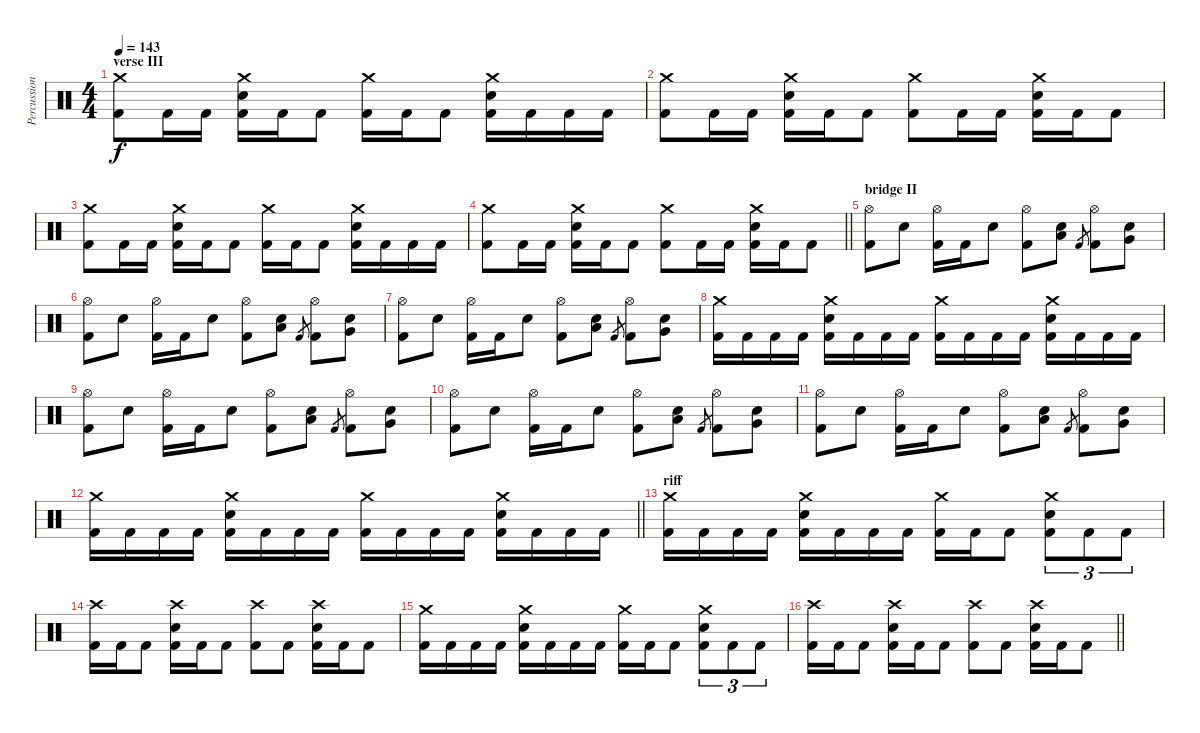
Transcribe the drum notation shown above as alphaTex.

\track ("Percussion" "Percussion") {instrument percussion}
\staff {score}
\articulation defaults
\ts (4 4)
\section ("" "verse III")
\tempo 143
\clef neutral
\ks c
("Crash medium (hit)" "Kick (hit) 2").8{dy f} "Kick (hit) 2".16 "Kick (hit) 2".16 ("Crash medium (hit)" "Snare (hit) 2" "Kick (hit) 2").16 "Kick (hit) 2".16 "Kick (hit) 2".8 ("Crash medium (hit)" "Kick (hit) 2").16 "Kick (hit) 2".16 "Kick (hit) 2".8 ("Crash medium (hit)" "Snare (hit) 2" "Kick (hit) 2").16 "Kick (hit) 2".16 "Kick (hit) 2".16 "Kick (hit) 2".16 |
("Crash medium (hit)" "Kick (hit) 2").8 "Kick (hit) 2".16 "Kick (hit) 2".16 ("Crash medium (hit)" "Snare (hit) 2" "Kick (hit) 2").16 "Kick (hit) 2".16 "Kick (hit) 2".8 ("Crash medium (hit)" "Kick (hit) 2").8 "Kick (hit) 2".16 "Kick (hit) 2".16 ("Crash medium (hit)" "Snare (hit) 2" "Kick (hit) 2").16 "Kick (hit) 2".16 "Kick (hit) 2".8 |
("Crash medium (hit)" "Kick (hit) 2").8 "Kick (hit) 2".16 "Kick (hit) 2".16 ("Crash medium (hit)" "Snare (hit) 2" "Kick (hit) 2").16 "Kick (hit) 2".16 "Kick (hit) 2".8 ("Crash medium (hit)" "Kick (hit) 2").16 "Kick (hit) 2".16 "Kick (hit) 2".8 ("Crash medium (hit)" "Snare (hit) 2" "Kick (hit) 2").16 "Kick (hit) 2".16 "Kick (hit) 2".16 "Kick (hit) 2".16 |
\barLineRight lightlight
("Crash medium (hit)" "Kick (hit) 2").8 "Kick (hit) 2".16 "Kick (hit) 2".16 ("Crash medium (hit)" "Snare (hit) 2" "Kick (hit) 2").16 "Kick (hit) 2".16 "Kick (hit) 2".8 ("Crash medium (hit)" "Kick (hit) 2").8 "Kick (hit) 2".16 "Kick (hit) 2".16 ("Crash medium (hit)" "Snare (hit) 2" "Kick (hit) 2").16 "Kick (hit) 2".16 "Kick (hit) 2".8 |
\section ("" "bridge II")
("Hi-Hat (open)" "Kick (hit) 2").8 "Snare (hit) 2".8 ("Hi-Hat (open)" "Kick (hit) 2").16 "Kick (hit) 2".16 "Snare (hit) 2".8 ("Hi-Hat (open)" "Kick (hit) 2").8 ("Low Floor Tom (hit)" "Snare (hit) 2").8 "Kick (hit) 2".8{gr} ("Hi-Hat (open)" "Kick (hit) 2").8 ("Very Low Tom (hit)" "Snare (hit) 2").8 |
("Hi-Hat (open)" "Kick (hit) 2").8 "Snare (hit) 2".8 ("Hi-Hat (open)" "Kick (hit) 2").16 "Kick (hit) 2".16 "Snare (hit) 2".8 ("Hi-Hat (open)" "Kick (hit) 2").8 ("Low Floor Tom (hit)" "Snare (hit) 2").8 "Kick (hit) 2".8{gr} ("Hi-Hat (open)" "Kick (hit) 2").8 ("Very Low Tom (hit)" "Snare (hit) 2").8 |
("Hi-Hat (open)" "Kick (hit) 2").8 "Snare (hit) 2".8 ("Hi-Hat (open)" "Kick (hit) 2").16 "Kick (hit) 2".16 "Snare (hit) 2".8 ("Hi-Hat (open)" "Kick (hit) 2").8 ("Low Floor Tom (hit)" "Snare (hit) 2").8 "Kick (hit) 2".8{gr} ("Hi-Hat (open)" "Kick (hit) 2").8 ("Very Low Tom (hit)" "Snare (hit) 2").8 |
("Crash medium (hit)" "Kick (hit) 2").16 "Kick (hit) 2".16 "Kick (hit) 2".16 "Kick (hit) 2".16 ("Crash medium (hit)" "Snare (hit) 2" "Kick (hit) 2").16 "Kick (hit) 2".16 "Kick (hit) 2".16 "Kick (hit) 2".16 ("Crash medium (hit)" "Kick (hit) 2").16 "Kick (hit) 2".16 "Kick (hit) 2".16 "Kick (hit) 2".16 ("Crash medium (hit)" "Snare (hit) 2" "Kick (hit) 2").16 "Kick (hit) 2".16 "Kick (hit) 2".16 "Kick (hit) 2".16 |
\ks aminor
("Hi-Hat (open)" "Kick (hit) 2").8 "Snare (hit) 2".8 ("Hi-Hat (open)" "Kick (hit) 2").16 "Kick (hit) 2".16 "Snare (hit) 2".8 ("Hi-Hat (open)" "Kick (hit) 2").8 ("Low Floor Tom (hit)" "Snare (hit) 2").8 "Kick (hit) 2".8{gr} ("Hi-Hat (open)" "Kick (hit) 2").8 ("Very Low Tom (hit)" "Snare (hit) 2").8 |
("Hi-Hat (open)" "Kick (hit) 2").8 "Snare (hit) 2".8 ("Hi-Hat (open)" "Kick (hit) 2").16 "Kick (hit) 2".16 "Snare (hit) 2".8 ("Hi-Hat (open)" "Kick (hit) 2").8 ("Low Floor Tom (hit)" "Snare (hit) 2").8 "Kick (hit) 2".8{gr} ("Hi-Hat (open)" "Kick (hit) 2").8 ("Very Low Tom (hit)" "Snare (hit) 2").8 |
("Hi-Hat (open)" "Kick (hit) 2").8 "Snare (hit) 2".8 ("Hi-Hat (open)" "Kick (hit) 2").16 "Kick (hit) 2".16 "Snare (hit) 2".8 ("Hi-Hat (open)" "Kick (hit) 2").8 ("Low Floor Tom (hit)" "Snare (hit) 2").8 "Kick (hit) 2".8{gr} ("Hi-Hat (open)" "Kick (hit) 2").8 ("Very Low Tom (hit)" "Snare (hit) 2").8 |
\barLineRight lightlight
\ks c
("Crash medium (hit)" "Kick (hit) 2").16 "Kick (hit) 2".16 "Kick (hit) 2".16 "Kick (hit) 2".16 ("Crash medium (hit)" "Snare (hit) 2" "Kick (hit) 2").16 "Kick (hit) 2".16 "Kick (hit) 2".16 "Kick (hit) 2".16 ("Crash medium (hit)" "Kick (hit) 2").16 "Kick (hit) 2".16 "Kick (hit) 2".16 "Kick (hit) 2".16 ("Crash medium (hit)" "Snare (hit) 2" "Kick (hit) 2").16 "Kick (hit) 2".16 "Kick (hit) 2".16 "Kick (hit) 2".16 |
\section ("" "riff")
("Crash medium (hit)" "Kick (hit) 2").16 "Kick (hit) 2".16 "Kick (hit) 2".16 "Kick (hit) 2".16 ("Crash medium (hit)" "Snare (hit) 2" "Kick (hit) 2").16 "Kick (hit) 2".16 "Kick (hit) 2".16 "Kick (hit) 2".16 ("Crash medium (hit)" "Kick (hit) 2").16 "Kick (hit) 2".16 "Kick (hit) 2".8 ("Crash medium (hit)" "Snare (hit) 2" "Kick (hit) 2").8{tu (3 2)} "Kick (hit) 2".8{tu (3 2)} "Kick (hit) 2".8{tu (3 2)} |
("Crash high (hit)" "Kick (hit) 2").16 "Kick (hit) 2".16 "Kick (hit) 2".8 ("Crash high (hit)" "Snare (hit) 2" "Kick (hit) 2").16 "Kick (hit) 2".16 "Kick (hit) 2".8 ("Crash high (hit)" "Kick (hit) 2").8 "Kick (hit) 2".8 ("Crash high (hit)" "Snare (hit) 2" "Kick (hit) 2").16 "Kick (hit) 2".16 "Kick (hit) 2".8 |
("Crash medium (hit)" "Kick (hit) 2").16 "Kick (hit) 2".16 "Kick (hit) 2".16 "Kick (hit) 2".16 ("Crash medium (hit)" "Snare (hit) 2" "Kick (hit) 2").16 "Kick (hit) 2".16 "Kick (hit) 2".16 "Kick (hit) 2".16 ("Crash medium (hit)" "Kick (hit) 2").16 "Kick (hit) 2".16 "Kick (hit) 2".8 ("Crash medium (hit)" "Snare (hit) 2" "Kick (hit) 2").8{tu (3 2)} "Kick (hit) 2".8{tu (3 2)} "Kick (hit) 2".8{tu (3 2)} |
\barLineRight lightlight
("Crash high (hit)" "Kick (hit) 2").16 "Kick (hit) 2".16 "Kick (hit) 2".8 ("Crash high (hit)" "Snare (hit) 2" "Kick (hit) 2").16 "Kick (hit) 2".16 "Kick (hit) 2".8 ("Crash high (hit)" "Kick (hit) 2").8 "Kick (hit) 2".8 ("Crash high (hit)" "Snare (hit) 2" "Kick (hit) 2").16 "Kick (hit) 2".16 "Kick (hit) 2".8
